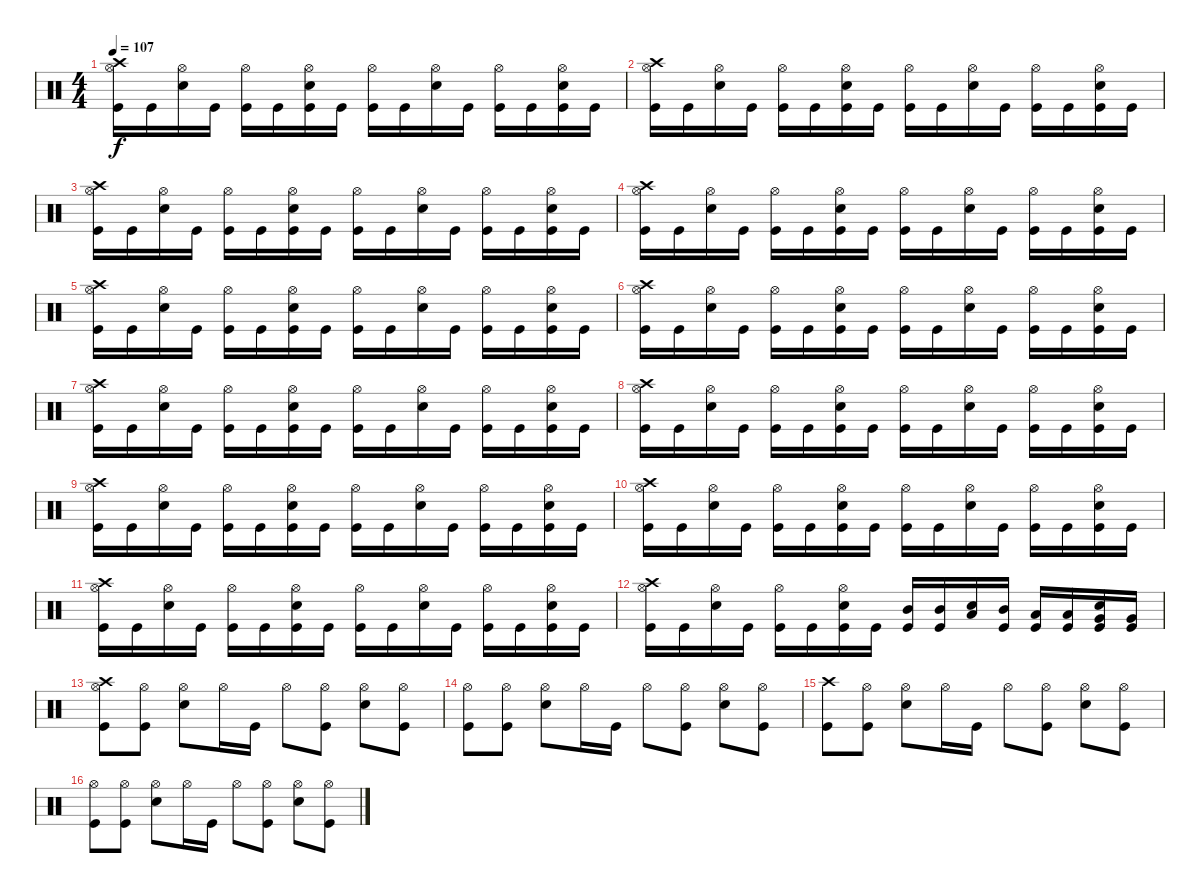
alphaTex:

\track "" {instrument percussion}
\staff {score}
\articulation defaults
\ts (4 4)
\tempo 107
\clef neutral
\ks c
("Hi-Hat (open)" "Crash high (hit)" "Kick (hit)").16{dy f} "Kick (hit)".16 ("Hi-Hat (open)" "Snare (hit) 2").16 "Kick (hit)".16 ("Hi-Hat (open)" "Kick (hit)").16 "Kick (hit)".16 ("Hi-Hat (open)" "Snare (hit) 2" "Kick (hit)").16 "Kick (hit)".16 ("Hi-Hat (open)" "Kick (hit)").16 "Kick (hit)".16 ("Hi-Hat (open)" "Snare (hit) 2").16 "Kick (hit)".16 ("Hi-Hat (open)" "Kick (hit)").16 "Kick (hit)".16 ("Hi-Hat (open)" "Snare (hit) 2" "Kick (hit)").16 "Kick (hit)".16 |
("Hi-Hat (open)" "Crash high (hit)" "Kick (hit)").16 "Kick (hit)".16 ("Hi-Hat (open)" "Snare (hit) 2").16 "Kick (hit)".16 ("Hi-Hat (open)" "Kick (hit)").16 "Kick (hit)".16 ("Hi-Hat (open)" "Snare (hit) 2" "Kick (hit)").16 "Kick (hit)".16 ("Hi-Hat (open)" "Kick (hit)").16 "Kick (hit)".16 ("Hi-Hat (open)" "Snare (hit) 2").16 "Kick (hit)".16 ("Hi-Hat (open)" "Kick (hit)").16 "Kick (hit)".16 ("Hi-Hat (open)" "Snare (hit) 2" "Kick (hit)").16 "Kick (hit)".16 |
("Hi-Hat (open)" "Crash high (hit)" "Kick (hit)").16 "Kick (hit)".16 ("Hi-Hat (open)" "Snare (hit) 2").16 "Kick (hit)".16 ("Hi-Hat (open)" "Kick (hit)").16 "Kick (hit)".16 ("Hi-Hat (open)" "Snare (hit) 2" "Kick (hit)").16 "Kick (hit)".16 ("Hi-Hat (open)" "Kick (hit)").16 "Kick (hit)".16 ("Hi-Hat (open)" "Snare (hit) 2").16 "Kick (hit)".16 ("Hi-Hat (open)" "Kick (hit)").16 "Kick (hit)".16 ("Hi-Hat (open)" "Snare (hit) 2" "Kick (hit)").16 "Kick (hit)".16 |
("Hi-Hat (open)" "Crash high (hit)" "Kick (hit)").16 "Kick (hit)".16 ("Hi-Hat (open)" "Snare (hit) 2").16 "Kick (hit)".16 ("Hi-Hat (open)" "Kick (hit)").16 "Kick (hit)".16 ("Hi-Hat (open)" "Snare (hit) 2" "Kick (hit)").16 "Kick (hit)".16 ("Hi-Hat (open)" "Kick (hit)").16 "Kick (hit)".16 ("Hi-Hat (open)" "Snare (hit) 2").16 "Kick (hit)".16 ("Hi-Hat (open)" "Kick (hit)").16 "Kick (hit)".16 ("Hi-Hat (open)" "Snare (hit) 2" "Kick (hit)").16 "Kick (hit)".16 |
("Hi-Hat (open)" "Crash high (hit)" "Kick (hit)").16 "Kick (hit)".16 ("Hi-Hat (open)" "Snare (hit) 2").16 "Kick (hit)".16 ("Hi-Hat (open)" "Kick (hit)").16 "Kick (hit)".16 ("Hi-Hat (open)" "Snare (hit) 2" "Kick (hit)").16 "Kick (hit)".16 ("Hi-Hat (open)" "Kick (hit)").16 "Kick (hit)".16 ("Hi-Hat (open)" "Snare (hit) 2").16 "Kick (hit)".16 ("Hi-Hat (open)" "Kick (hit)").16 "Kick (hit)".16 ("Hi-Hat (open)" "Snare (hit) 2" "Kick (hit)").16 "Kick (hit)".16 |
("Hi-Hat (open)" "Crash high (hit)" "Kick (hit)").16 "Kick (hit)".16 ("Hi-Hat (open)" "Snare (hit) 2").16 "Kick (hit)".16 ("Hi-Hat (open)" "Kick (hit)").16 "Kick (hit)".16 ("Hi-Hat (open)" "Snare (hit) 2" "Kick (hit)").16 "Kick (hit)".16 ("Hi-Hat (open)" "Kick (hit)").16 "Kick (hit)".16 ("Hi-Hat (open)" "Snare (hit) 2").16 "Kick (hit)".16 ("Hi-Hat (open)" "Kick (hit)").16 "Kick (hit)".16 ("Hi-Hat (open)" "Snare (hit) 2" "Kick (hit)").16 "Kick (hit)".16 |
("Hi-Hat (open)" "Crash high (hit)" "Kick (hit)").16 "Kick (hit)".16 ("Hi-Hat (open)" "Snare (hit) 2").16 "Kick (hit)".16 ("Hi-Hat (open)" "Kick (hit)").16 "Kick (hit)".16 ("Hi-Hat (open)" "Snare (hit) 2" "Kick (hit)").16 "Kick (hit)".16 ("Hi-Hat (open)" "Kick (hit)").16 "Kick (hit)".16 ("Hi-Hat (open)" "Snare (hit) 2").16 "Kick (hit)".16 ("Hi-Hat (open)" "Kick (hit)").16 "Kick (hit)".16 ("Hi-Hat (open)" "Snare (hit) 2" "Kick (hit)").16 "Kick (hit)".16 |
("Hi-Hat (open)" "Crash high (hit)" "Kick (hit)").16 "Kick (hit)".16 ("Hi-Hat (open)" "Snare (hit) 2").16 "Kick (hit)".16 ("Hi-Hat (open)" "Kick (hit)").16 "Kick (hit)".16 ("Hi-Hat (open)" "Snare (hit) 2" "Kick (hit)").16 "Kick (hit)".16 ("Hi-Hat (open)" "Kick (hit)").16 "Kick (hit)".16 ("Hi-Hat (open)" "Snare (hit) 2").16 "Kick (hit)".16 ("Hi-Hat (open)" "Kick (hit)").16 "Kick (hit)".16 ("Hi-Hat (open)" "Snare (hit) 2" "Kick (hit)").16 "Kick (hit)".16 |
("Hi-Hat (open)" "Crash high (hit)" "Kick (hit)").16 "Kick (hit)".16 ("Hi-Hat (open)" "Snare (hit) 2").16 "Kick (hit)".16 ("Hi-Hat (open)" "Kick (hit)").16 "Kick (hit)".16 ("Hi-Hat (open)" "Snare (hit) 2" "Kick (hit)").16 "Kick (hit)".16 ("Hi-Hat (open)" "Kick (hit)").16 "Kick (hit)".16 ("Hi-Hat (open)" "Snare (hit) 2").16 "Kick (hit)".16 ("Hi-Hat (open)" "Kick (hit)").16 "Kick (hit)".16 ("Hi-Hat (open)" "Snare (hit) 2" "Kick (hit)").16 "Kick (hit)".16 |
("Hi-Hat (open)" "Crash high (hit)" "Kick (hit)").16 "Kick (hit)".16 ("Hi-Hat (open)" "Snare (hit) 2").16 "Kick (hit)".16 ("Hi-Hat (open)" "Kick (hit)").16 "Kick (hit)".16 ("Hi-Hat (open)" "Snare (hit) 2" "Kick (hit)").16 "Kick (hit)".16 ("Hi-Hat (open)" "Kick (hit)").16 "Kick (hit)".16 ("Hi-Hat (open)" "Snare (hit) 2").16 "Kick (hit)".16 ("Hi-Hat (open)" "Kick (hit)").16 "Kick (hit)".16 ("Hi-Hat (open)" "Snare (hit) 2" "Kick (hit)").16 "Kick (hit)".16 |
("Hi-Hat (open)" "Crash high (hit)" "Kick (hit)").16 "Kick (hit)".16 ("Hi-Hat (open)" "Snare (hit) 2").16 "Kick (hit)".16 ("Hi-Hat (open)" "Kick (hit)").16 "Kick (hit)".16 ("Hi-Hat (open)" "Snare (hit) 2" "Kick (hit)").16 "Kick (hit)".16 ("Hi-Hat (open)" "Kick (hit)").16 "Kick (hit)".16 ("Hi-Hat (open)" "Snare (hit) 2").16 "Kick (hit)".16 ("Hi-Hat (open)" "Kick (hit)").16 "Kick (hit)".16 ("Hi-Hat (open)" "Snare (hit) 2" "Kick (hit)").16 "Kick (hit)".16 |
("Hi-Hat (open)" "Crash high (hit)" "Kick (hit)").16 "Kick (hit)".16 ("Hi-Hat (open)" "Snare (hit) 2").16 "Kick (hit)".16 ("Hi-Hat (open)" "Kick (hit)").16 "Kick (hit)".16 ("Hi-Hat (open)" "Snare (hit) 2" "Kick (hit)").16 "Kick (hit)".16 ("Mid Tom (hit)" "Kick (hit)").16 ("Mid Tom (hit)" "Kick (hit)").16 ("Low Tom (hit)" "Snare (hit) 2").16 ("Mid Tom (hit)" "Kick (hit)").16 ("Low Tom (hit)" "Kick (hit)").16 ("Low Tom (hit)" "Kick (hit)").16 ("Very Low Tom (hit)" "Snare (hit) 2" "Kick (hit)").16 ("Very Low Tom (hit)" "Kick (hit)").16 |
("Crash high (hit)" "Hi-Hat (open)" "Kick (hit)").8 ("Kick (hit)" "Hi-Hat (open)").8 ("Snare (hit) 2" "Hi-Hat (open)").8 "Hi-Hat (open)".16 "Kick (hit)".16 "Hi-Hat (open)".8 ("Kick (hit)" "Hi-Hat (open)").8 ("Snare (hit) 2" "Hi-Hat (open)").8 ("Kick (hit)" "Hi-Hat (open)").8 |
("Hi-Hat (open)" "Kick (hit)").8 ("Kick (hit)" "Hi-Hat (open)").8 ("Snare (hit) 2" "Hi-Hat (open)").8 "Hi-Hat (open)".16 "Kick (hit)".16 "Hi-Hat (open)".8 ("Kick (hit)" "Hi-Hat (open)").8 ("Snare (hit) 2" "Hi-Hat (open)").8 ("Kick (hit)" "Hi-Hat (open)").8 |
("Crash high (hit)" "Kick (hit)").8 ("Kick (hit)" "Hi-Hat (open)").8 ("Snare (hit) 2" "Hi-Hat (open)").8 "Hi-Hat (open)".16 "Kick (hit)".16 "Hi-Hat (open)".8 ("Kick (hit)" "Hi-Hat (open)").8 ("Snare (hit) 2" "Hi-Hat (open)").8 ("Kick (hit)" "Hi-Hat (open)").8 |
("Hi-Hat (open)" "Kick (hit)").8 ("Kick (hit)" "Hi-Hat (open)").8 ("Snare (hit) 2" "Hi-Hat (open)").8 "Hi-Hat (open)".16 "Kick (hit)".16 "Hi-Hat (open)".8 ("Kick (hit)" "Hi-Hat (open)").8 ("Snare (hit) 2" "Hi-Hat (open)").8 ("Kick (hit)" "Hi-Hat (open)").8
